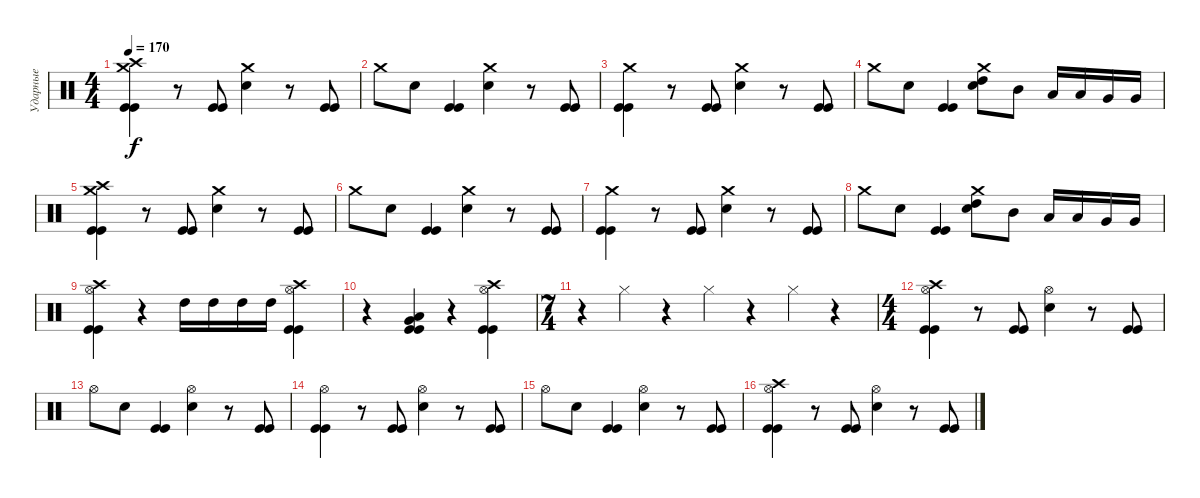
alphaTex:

\track ("Ударные" "Ударные") {instrument percussion}
\staff {score}
\articulation defaults
\ts (4 4)
\tempo 170
\clef neutral
\ks c
("Crash high (hit)" "Crash medium (hit)" "Kick (hit)" "Kick (hit)").4{dy f} r.8 ("Kick (hit)" "Kick (hit)").8 ("Crash medium (hit)" "Electric Snare (hit)").4 r.8 ("Kick (hit)" "Kick (hit)").8 |
"Crash medium (hit)".8 "Electric Snare (hit)".8 ("Kick (hit)" "Kick (hit)").4 ("Crash medium (hit)" "Electric Snare (hit)").4 r.8 ("Kick (hit)" "Kick (hit)").8 |
("Crash medium (hit)" "Kick (hit)" "Kick (hit)").4 r.8 ("Kick (hit)" "Kick (hit)").8 ("Crash medium (hit)" "Electric Snare (hit)").4 r.8 ("Kick (hit)" "Kick (hit)").8 |
"Crash medium (hit)".8 "Electric Snare (hit)".8 ("Kick (hit)" "Kick (hit)").4 ("Crash medium (hit)" "Electric Snare (hit)" "High Tom (hit)").8 "Mid Tom (hit)".8 "Low Tom (hit)".16 "Low Tom (hit)".16 "Very Low Tom (hit)".16 "Very Low Tom (hit)".16 |
("Crash high (hit)" "Crash medium (hit)" "Kick (hit)" "Kick (hit)").4 r.8 ("Kick (hit)" "Kick (hit)").8 ("Crash medium (hit)" "Electric Snare (hit)").4 r.8 ("Kick (hit)" "Kick (hit)").8 |
"Crash medium (hit)".8 "Electric Snare (hit)".8 ("Kick (hit)" "Kick (hit)").4 ("Crash medium (hit)" "Electric Snare (hit)").4 r.8 ("Kick (hit)" "Kick (hit)").8 |
("Crash medium (hit)" "Kick (hit)" "Kick (hit)").4 r.8 ("Kick (hit)" "Kick (hit)").8 ("Crash medium (hit)" "Electric Snare (hit)").4 r.8 ("Kick (hit)" "Kick (hit)").8 |
"Crash medium (hit)".8 "Electric Snare (hit)".8 ("Kick (hit)" "Kick (hit)").4 ("Crash medium (hit)" "Electric Snare (hit)" "High Tom (hit)").8 "Mid Tom (hit)".8 "Low Tom (hit)".16 "Low Tom (hit)".16 "Very Low Tom (hit)".16 "Very Low Tom (hit)".16 |
("Crash high (hit)" "Hi-Hat (open)" "Kick (hit)" "Kick (hit)").4 r.4 "High Tom (hit)".16 "High Tom (hit)".16 "High Tom (hit)".16 "High Tom (hit)".16 ("Crash high (hit)" "Hi-Hat (open)" "Kick (hit)" "Kick (hit)").4 |
r.4 ("Low Tom (hit)" "Very Low Tom (hit)" "Kick (hit)" "Kick (hit)").4 r.4 ("Crash high (hit)" "Hi-Hat (open)" "Kick (hit)" "Kick (hit)").4 |
\ts (7 4)
r.4 "Hi-Hat (closed)".4 r.4 "Hi-Hat (closed)".4 r.4 "Hi-Hat (closed)".4 r.4 |
\ts (4 4)
("Crash high (hit)" "Hi-Hat (open)" "Kick (hit)" "Kick (hit)").4 r.8 ("Kick (hit)" "Kick (hit)").8 ("Hi-Hat (open)" "Electric Snare (hit)").4 r.8 ("Kick (hit)" "Kick (hit)").8 |
"Hi-Hat (open)".8 "Electric Snare (hit)".8 ("Kick (hit)" "Kick (hit)").4 ("Hi-Hat (open)" "Electric Snare (hit)").4 r.8 ("Kick (hit)" "Kick (hit)").8 |
("Hi-Hat (open)" "Kick (hit)" "Kick (hit)").4 r.8 ("Kick (hit)" "Kick (hit)").8 ("Hi-Hat (open)" "Electric Snare (hit)").4 r.8 ("Kick (hit)" "Kick (hit)").8 |
"Hi-Hat (open)".8 "Electric Snare (hit)".8 ("Kick (hit)" "Kick (hit)").4 ("Hi-Hat (open)" "Electric Snare (hit)").4 r.8 ("Kick (hit)" "Kick (hit)").8 |
("Crash high (hit)" "Hi-Hat (open)" "Kick (hit)" "Kick (hit)").4 r.8 ("Kick (hit)" "Kick (hit)").8 ("Hi-Hat (open)" "Electric Snare (hit)").4 r.8 ("Kick (hit)" "Kick (hit)").8
